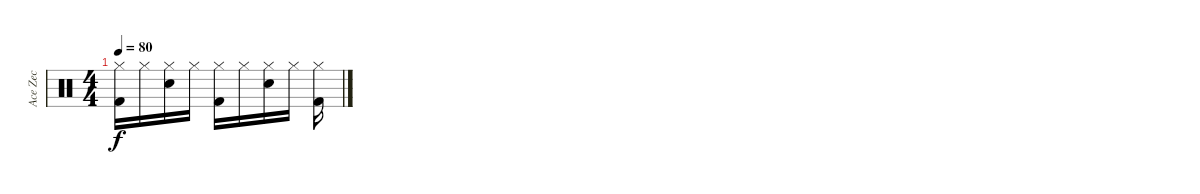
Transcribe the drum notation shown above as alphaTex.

\track ("Ace Zec" "Ace Zec") {instrument percussion}
\staff {score}
\articulation defaults
\ts (4 4)
\tempo 80
\clef neutral
\ks c
("Hi-Hat (closed)" "Kick (hit) 2").16{dy f} "Hi-Hat (closed)".16 ("Hi-Hat (closed)" "Snare (hit) 2").16 "Hi-Hat (closed)".16 ("Hi-Hat (closed)" "Kick (hit) 2").16 "Hi-Hat (closed)".16 ("Hi-Hat (closed)" "Snare (hit) 2").16 "Hi-Hat (closed)".16 ("Hi-Hat (closed)" "Kick (hit) 2").16
